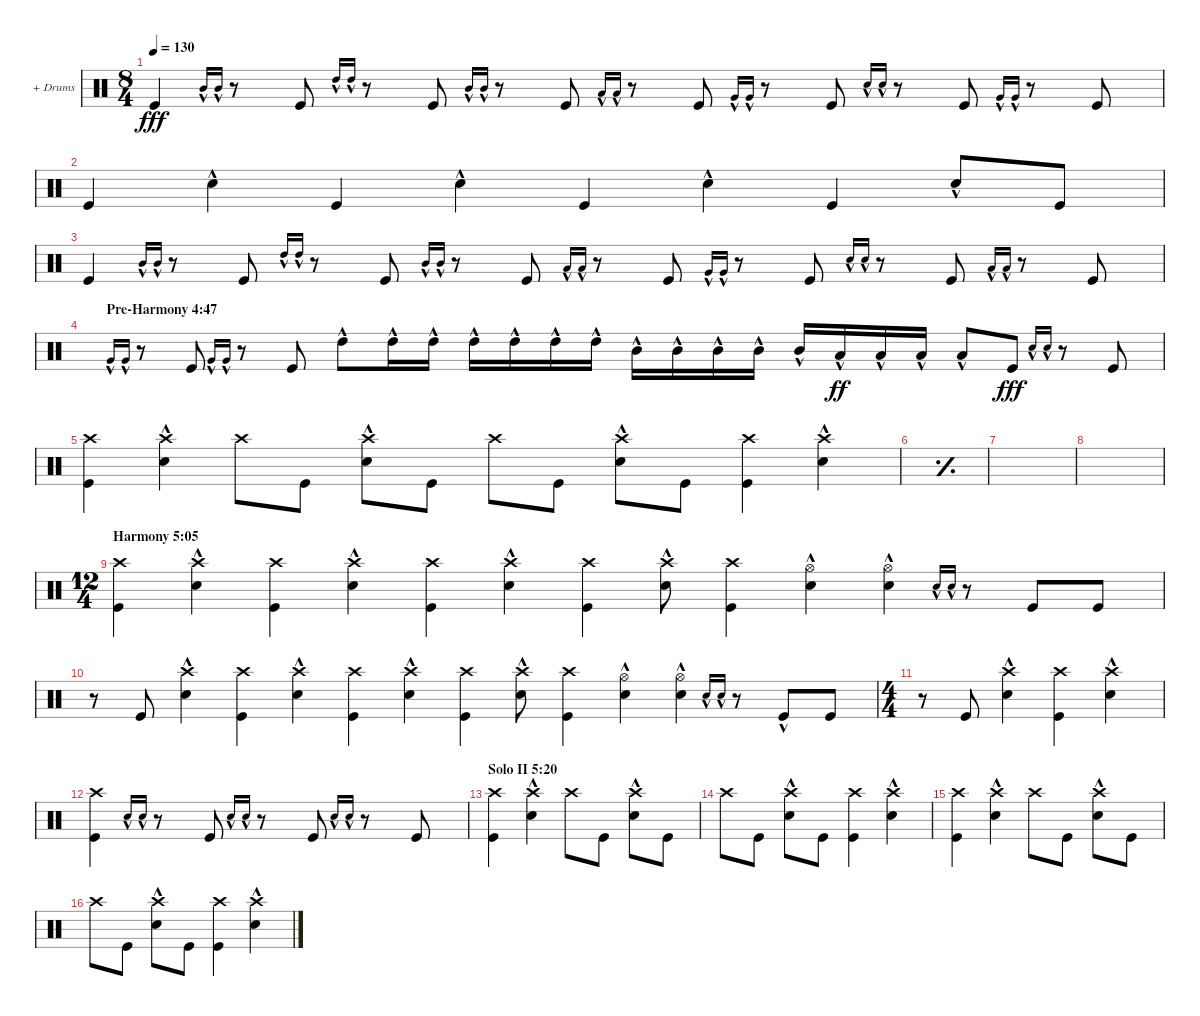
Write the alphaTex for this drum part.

\defaultSystemsLayout 4
\bracketExtendMode groupsimilarinstruments
\firstSystemTrackNameOrientation horizontal
\otherSystemsTrackNameOrientation horizontal
\track ("+ Drums" "+ Drums") {instrument percussion}
\staff {score}
\articulation defaults
\ts (8 4)
\tempo 130
\clef neutral
\ks c "Kick (hit)".4{dy fff} "Mid Tom (hit)"{hac}.16{gr onbeat} "Mid Tom (hit)"{hac}.16{gr onbeat}
r.8 "Kick (hit)".8 "High Tom (hit)"{hac}.16{gr onbeat} "High Tom (hit)"{hac}.16{gr onbeat} r.8 "Kick (hit)".8 "Mid Tom (hit)"{hac}.16{gr onbeat} "Mid Tom (hit)"{hac}.16{gr onbeat} r.8 "Kick (hit)".8 "Low Tom (hit)"{hac}.16{gr onbeat} "Low Tom (hit)"{hac}.16{gr onbeat} r.8 "Kick (hit)".8 "Very Low Tom (hit)"{hac}.16{gr onbeat} "Very Low Tom (hit)"{hac}.16{gr onbeat} r.8 "Kick (hit)".8 "Snare (hit) 2"{hac}.16{gr onbeat} "Snare (hit) 2"{hac}.16{gr onbeat} r.8 "Kick (hit)".8 "Very Low Tom (hit)"{hac}.16{gr onbeat} "Very Low Tom (hit)"{hac}.16{gr onbeat} r.8 "Kick (hit)".8 |
"Kick (hit)".4 "Snare (hit) 2"{hac}.4 "Kick (hit)".4 "Snare (hit) 2"{hac}.4 "Kick (hit)".4 "Snare (hit) 2"{hac}.4 "Kick (hit)".4 "Snare (hit) 2"{hac}.8 "Kick (hit)".8 |
"Kick (hit)".4 "Mid Tom (hit)"{hac}.16{gr onbeat} "Mid Tom (hit)"{hac}.16{gr onbeat} r.8 "Kick (hit)".8 "High Tom (hit)"{hac}.16{gr onbeat} "High Tom (hit)"{hac}.16{gr onbeat} r.8 "Kick (hit)".8 "Mid Tom (hit)"{hac}.16{gr onbeat} "Mid Tom (hit)"{hac}.16{gr onbeat} r.8 "Kick (hit)".8 "Low Tom (hit)"{hac}.16{gr onbeat} "Low Tom (hit)"{hac}.16{gr onbeat} r.8 "Kick (hit)".8 "Very Low Tom (hit)"{hac}.16{gr onbeat} "Very Low Tom (hit)"{hac}.16{gr onbeat} r.8 "Kick (hit)".8 "Snare (hit) 2"{hac}.16{gr onbeat} "Snare (hit) 2"{hac}.16{gr onbeat} r.8 "Kick (hit)".8 "Low Tom (hit)"{hac}.16{gr onbeat} "Low Tom (hit)"{hac}.16{gr onbeat} r.8 "Kick (hit)".8 |
\section ("" "Pre-Harmony 4:47")
"Very Low Tom (hit)"{hac}.16{gr onbeat} "Very Low Tom (hit)"{hac}.16{gr onbeat} r.8 "Kick (hit)".8 "Very Low Tom (hit)"{hac}.16{gr onbeat} "Very Low Tom (hit)"{hac}.16{gr onbeat} r.8 "Kick (hit)".8 "High Tom (hit)"{hac}.8 "High Tom (hit)"{hac}.16 "High Tom (hit)"{hac}.16 "High Tom (hit)"{hac}.16 "High Tom (hit)"{hac}.16 "High Tom (hit)"{hac}.16 "High Tom (hit)"{hac}.16 "Mid Tom (hit)"{hac}.16 "Mid Tom (hit)"{hac}.16 "Mid Tom (hit)"{hac}.16 "Mid Tom (hit)"{hac}.16 "Mid Tom (hit)"{hac}.16 "Low Tom (hit)"{hac}.16{dy ff} "Low Tom (hit)"{hac}.16 "Low Tom (hit)"{hac}.16 "Low Tom (hit)"{hac}.8 "Kick (hit)".8{dy fff} "Snare (hit) 2"{hac}.16{gr onbeat} "Snare (hit) 2"{hac}.16{gr onbeat} r.8 "Kick (hit)".8 |
("Crash high (hit)" "Kick (hit)").4 ("Crash high (hit)" "Snare (hit) 2"{hac}).4 "Crash high (hit)".8 "Kick (hit)".8 ("Crash high (hit)" "Snare (hit) 2"{hac}).8 "Kick (hit)".8 "Crash high (hit)".8 "Kick (hit)".8 ("Crash high (hit)" "Snare (hit) 2"{hac}).8 "Kick (hit)".8 ("Crash high (hit)" "Kick (hit)").4 ("Crash high (hit)" "Snare (hit) 2"{hac}).4 |
\simile simple
|
|
|
\ts (12 4)
\section ("" "Harmony 5:05")
\simile none
("Crash high (hit)" "Kick (hit)").4 ("Crash high (hit)" "Snare (hit) 2"{hac}).4 ("Crash high (hit)" "Kick (hit)").4 ("Crash high (hit)" "Snare (hit) 2"{hac}).4 ("Crash high (hit)" "Kick (hit)").4 ("Crash high (hit)" "Snare (hit) 2"{hac}).4 ("Crash high (hit)" "Kick (hit)").4 ("Crash high (hit)" "Snare (hit) 2"{hac}).8 ("Crash high (hit)" "Kick (hit)").4 ("Hi-Hat (open)"{hac} "Snare (hit) 2"{hac}).4 ("Hi-Hat (open)"{hac} "Snare (hit) 2"{hac}).4 "Snare (hit) 2"{hac}.16{gr onbeat} "Snare (hit) 2"{hac}.16{gr onbeat} r.8 "Kick (hit)".8 "Kick (hit)".8 |
r.8 "Kick (hit)".8 ("Crash high (hit)" "Snare (hit) 2"{hac}).4 ("Crash high (hit)" "Kick (hit)").4 ("Crash high (hit)" "Snare (hit) 2"{hac}).4 ("Crash high (hit)" "Kick (hit)").4 ("Crash high (hit)" "Snare (hit) 2"{hac}).4 ("Crash high (hit)" "Kick (hit)").4 ("Crash high (hit)" "Snare (hit) 2"{hac}).8 ("Crash high (hit)" "Kick (hit)").4 ("Hi-Hat (open)"{hac} "Snare (hit) 2"{hac}).4 ("Hi-Hat (open)"{hac} "Snare (hit) 2"{hac}).4 "Snare (hit) 2"{hac}.16{gr onbeat} "Snare (hit) 2"{hac}.16{gr onbeat} r.8 "Kick (hit)"{hac}.8 "Kick (hit)".8 |
\ts (4 4)
r.8 "Kick (hit)".8 ("Crash high (hit)" "Snare (hit) 2"{hac}).4 ("Crash high (hit)" "Kick (hit)").4 ("Crash high (hit)" "Snare (hit) 2"{hac}).4 |
("Crash high (hit)" "Kick (hit)").4 "Snare (hit) 2"{hac}.16{gr onbeat} "Snare (hit) 2"{hac}.16{gr onbeat} r.8 "Kick (hit)".8 "Snare (hit) 2"{hac}.16{gr onbeat} "Snare (hit) 2"{hac}.16{gr onbeat} r.8 "Kick (hit)".8 "Snare (hit) 2"{hac}.16{gr onbeat} "Snare (hit) 2"{hac}.16{gr onbeat} r.8 "Kick (hit)".8 |
\section ("" "Solo II 5:20")
("Crash high (hit)" "Kick (hit)").4 ("Crash high (hit)" "Snare (hit) 2"{hac}).4 "Crash high (hit)".8 "Kick (hit)".8 ("Crash high (hit)" "Snare (hit) 2"{hac}).8 "Kick (hit)".8 |
"Crash high (hit)".8 "Kick (hit)".8 ("Crash high (hit)" "Snare (hit) 2"{hac}).8 "Kick (hit)".8 ("Crash high (hit)" "Kick (hit)").4 ("Crash high (hit)" "Snare (hit) 2"{hac}).4 |
("Crash high (hit)" "Kick (hit)").4 ("Crash high (hit)" "Snare (hit) 2"{hac}).4 "Crash high (hit)".8 "Kick (hit)".8 ("Crash high (hit)" "Snare (hit) 2"{hac}).8 "Kick (hit)".8 |
"Crash high (hit)".8 "Kick (hit)".8 ("Crash high (hit)" "Snare (hit) 2"{hac}).8 "Kick (hit)".8 ("Crash high (hit)" "Kick (hit)").4 ("Crash high (hit)" "Snare (hit) 2"{hac}).4
